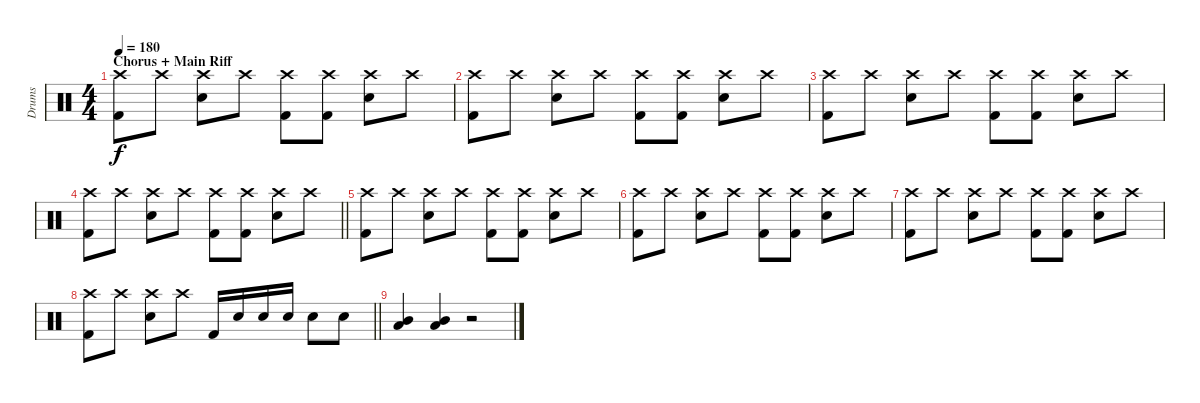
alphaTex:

\track ("Drums" "Drums") {instrument percussion}
\staff {score}
\articulation defaults
\ts (4 4)
\section ("" "Chorus + Main Riff")
\tempo 180
\clef neutral
\ks c
("Crash high (hit)" "Kick (hit) 2").8{dy f} "Crash high (hit)".8 ("Crash high (hit)" "Snare (hit) 2").8 "Crash high (hit)".8 ("Crash high (hit)" "Kick (hit) 2").8 ("Crash high (hit)" "Kick (hit) 2").8 ("Crash high (hit)" "Snare (hit) 2").8 "Crash high (hit)".8 |
("Crash high (hit)" "Kick (hit) 2").8 "Crash high (hit)".8 ("Crash high (hit)" "Snare (hit) 2").8 "Crash high (hit)".8 ("Crash high (hit)" "Kick (hit) 2").8 ("Crash high (hit)" "Kick (hit) 2").8 ("Crash high (hit)" "Snare (hit) 2").8 "Crash high (hit)".8 |
("Crash high (hit)" "Kick (hit) 2").8 "Crash high (hit)".8 ("Crash high (hit)" "Snare (hit) 2").8 "Crash high (hit)".8 ("Crash high (hit)" "Kick (hit) 2").8 ("Crash high (hit)" "Kick (hit) 2").8 ("Crash high (hit)" "Snare (hit) 2").8 "Crash high (hit)".8 |
\barLineRight lightlight
("Crash high (hit)" "Kick (hit) 2").8 "Crash high (hit)".8 ("Crash high (hit)" "Snare (hit) 2").8 "Crash high (hit)".8 ("Crash high (hit)" "Kick (hit) 2").8 ("Crash high (hit)" "Kick (hit) 2").8 ("Crash high (hit)" "Snare (hit) 2").8 "Crash high (hit)".8 |
("Crash high (hit)" "Kick (hit) 2").8 "Crash high (hit)".8 ("Crash high (hit)" "Snare (hit) 2").8 "Crash high (hit)".8 ("Crash high (hit)" "Kick (hit) 2").8 ("Crash high (hit)" "Kick (hit) 2").8 ("Crash high (hit)" "Snare (hit) 2").8 "Crash high (hit)".8 |
("Crash high (hit)" "Kick (hit) 2").8 "Crash high (hit)".8 ("Crash high (hit)" "Snare (hit) 2").8 "Crash high (hit)".8 ("Crash high (hit)" "Kick (hit) 2").8 ("Crash high (hit)" "Kick (hit) 2").8 ("Crash high (hit)" "Snare (hit) 2").8 "Crash high (hit)".8 |
("Crash high (hit)" "Kick (hit) 2").8 "Crash high (hit)".8 ("Crash high (hit)" "Snare (hit) 2").8 "Crash high (hit)".8 ("Crash high (hit)" "Kick (hit) 2").8 ("Crash high (hit)" "Kick (hit) 2").8 ("Crash high (hit)" "Snare (hit) 2").8 "Crash high (hit)".8 |
\barLineRight lightlight
("Crash high (hit)" "Kick (hit) 2").8 "Crash high (hit)".8 ("Crash high (hit)" "Snare (hit) 2").8 "Crash high (hit)".8 "Kick (hit) 2".16 "Snare (hit) 2".16 "Snare (hit) 2".16 "Snare (hit) 2".16 "Snare (hit) 2".8 "Snare (hit) 2".8 |
("Mid Tom (hit)" "Low Tom (hit)").4 ("Mid Tom (hit)" "Low Tom (hit)").4 r.2
